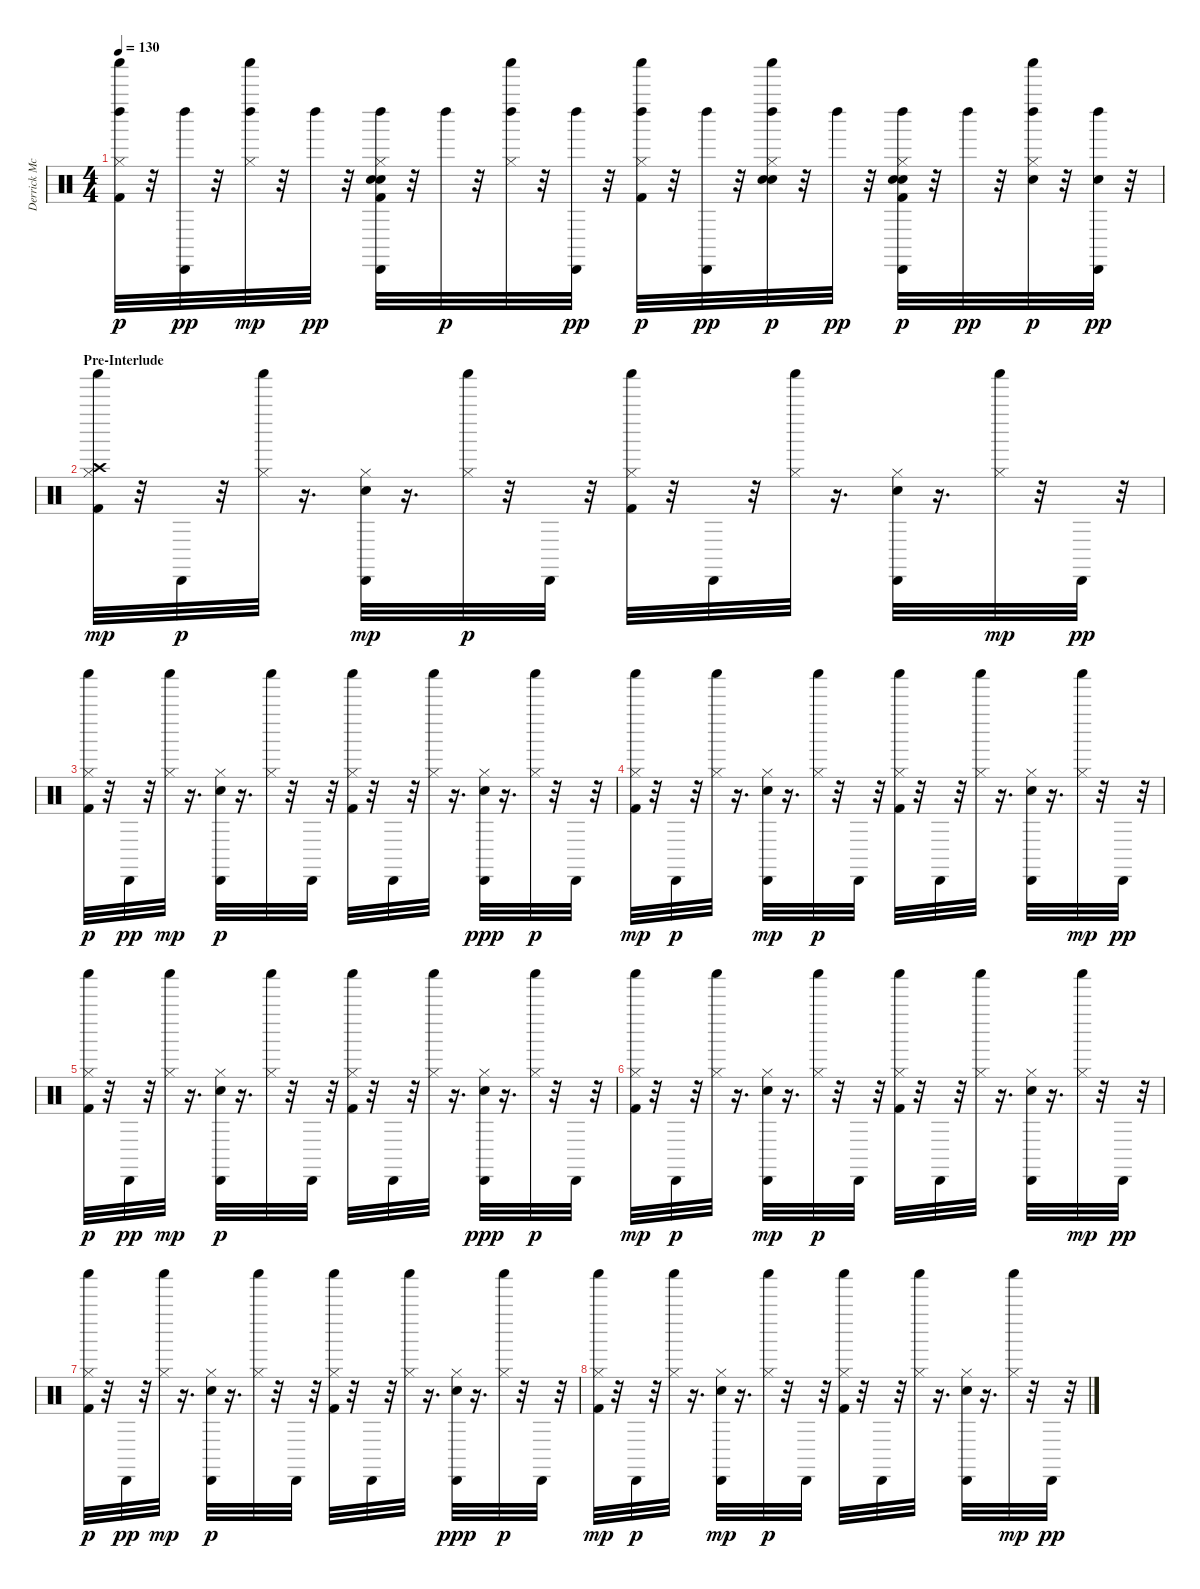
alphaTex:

\track ("Derrick McKenzie\\Sola Akingbola - Drums" "Derrick Mc") {instrument percussion}
\staff {score}
\articulation defaults
\ts (4 4)
\tempo 130
\clef neutral
\ks c
("Kick (hit) 2" "Hi-Hat (closed)" "Left Maraca (hit)" "Shaker (hit)").32{dy p} r.32 ("Cabasa (hit)" "Left Maraca (hit)").32{dy pp} r.32 ("Hi-Hat (closed)" "Left Maraca (hit)" "Shaker (hit)").32{dy mp} r.32 "Left Maraca (hit)".32{dy pp} r.32 ("Kick (hit) 2" "Hand Clap (hit)" "Electric Snare (hit)" "Hi-Hat (closed)" "Cabasa (hit)" "Left Maraca (hit)").32 r.32 "Left Maraca (hit)".32{dy p} r.32 ("Hi-Hat (closed)" "Left Maraca (hit)" "Shaker (hit)").32 r.32 ("Cabasa (hit)" "Left Maraca (hit)").32{dy pp} r.32 ("Kick (hit) 2" "Hi-Hat (closed)" "Left Maraca (hit)" "Shaker (hit)").32{dy p} r.32 ("Cabasa (hit)" "Left Maraca (hit)").32{dy pp} r.32 ("Hand Clap (hit)" "Electric Snare (hit)" "Hi-Hat (closed)" "Left Maraca (hit)" "Shaker (hit)").32{dy p} r.32 "Left Maraca (hit)".32{dy pp} r.32 ("Kick (hit) 2" "Hand Clap (hit)" "Electric Snare (hit)" "Hi-Hat (closed)" "Cabasa (hit)" "Left Maraca (hit)").32{dy p} r.32 "Left Maraca (hit)".32{dy pp} r.32 ("Electric Snare (hit)" "Hi-Hat (closed)" "Left Maraca (hit)" "Shaker (hit)").32{dy p} r.32 ("Electric Snare (hit)" "Cabasa (hit)" "Left Maraca (hit)").32{dy pp} r.32 |
\section ("" "Pre-Interlude")
("Kick (hit) 2" "Hi-Hat (closed)" "Crash high (hit)" "Shaker (hit)").32{dy mp} r.32 "Cabasa (hit)".32{dy p} r.32 ("Hi-Hat (closed)" "Shaker (hit)").32 r.16{d} ("Electric Snare (hit)" "Hi-Hat (closed)" "Cabasa (hit)").32{dy mp} r.16{d} ("Hi-Hat (closed)" "Shaker (hit)").32{dy p} r.32 "Cabasa (hit)".32 r.32 ("Kick (hit) 2" "Hi-Hat (closed)" "Shaker (hit)").32 r.32 "Cabasa (hit)".32 r.32 ("Hi-Hat (closed)" "Shaker (hit)").32 r.16{d} ("Electric Snare (hit)" "Hi-Hat (closed)" "Cabasa (hit)").32 r.16{d} ("Hi-Hat (closed)" "Shaker (hit)").32{dy mp} r.32 "Cabasa (hit)".32{dy pp} r.32 |
("Kick (hit) 2" "Hi-Hat (closed)" "Shaker (hit)").32{dy p} r.32 "Cabasa (hit)".32{dy pp} r.32 ("Hi-Hat (closed)" "Shaker (hit)").32{dy mp} r.16{d} ("Electric Snare (hit)" "Hi-Hat (closed)" "Cabasa (hit)").32{dy p} r.16{d} ("Hi-Hat (closed)" "Shaker (hit)").32 r.32 "Cabasa (hit)".32 r.32 ("Kick (hit) 2" "Hi-Hat (closed)" "Shaker (hit)").32 r.32 "Cabasa (hit)".32 r.32 ("Hi-Hat (closed)" "Shaker (hit)").32 r.16{d} ("Electric Snare (hit)" "Hi-Hat (closed)" "Cabasa (hit)").32{dy ppp} r.16{d} ("Hi-Hat (closed)" "Shaker (hit)").32{dy p} r.32 "Cabasa (hit)".32 r.32 |
("Kick (hit) 2" "Hi-Hat (closed)" "Shaker (hit)").32{dy mp} r.32 "Cabasa (hit)".32{dy p} r.32 ("Hi-Hat (closed)" "Shaker (hit)").32 r.16{d} ("Electric Snare (hit)" "Hi-Hat (closed)" "Cabasa (hit)").32{dy mp} r.16{d} ("Hi-Hat (closed)" "Shaker (hit)").32{dy p} r.32 "Cabasa (hit)".32 r.32 ("Kick (hit) 2" "Hi-Hat (closed)" "Shaker (hit)").32 r.32 "Cabasa (hit)".32 r.32 ("Hi-Hat (closed)" "Shaker (hit)").32 r.16{d} ("Electric Snare (hit)" "Hi-Hat (closed)" "Cabasa (hit)").32 r.16{d} ("Hi-Hat (closed)" "Shaker (hit)").32{dy mp} r.32 "Cabasa (hit)".32{dy pp} r.32 |
("Kick (hit) 2" "Hi-Hat (closed)" "Shaker (hit)").32{dy p} r.32 "Cabasa (hit)".32{dy pp} r.32 ("Hi-Hat (closed)" "Shaker (hit)").32{dy mp} r.16{d} ("Electric Snare (hit)" "Hi-Hat (closed)" "Cabasa (hit)").32{dy p} r.16{d} ("Hi-Hat (closed)" "Shaker (hit)").32 r.32 "Cabasa (hit)".32 r.32 ("Kick (hit) 2" "Hi-Hat (closed)" "Shaker (hit)").32 r.32 "Cabasa (hit)".32 r.32 ("Hi-Hat (closed)" "Shaker (hit)").32 r.16{d} ("Electric Snare (hit)" "Hi-Hat (closed)" "Cabasa (hit)").32{dy ppp} r.16{d} ("Hi-Hat (closed)" "Shaker (hit)").32{dy p} r.32 "Cabasa (hit)".32 r.32 |
("Kick (hit) 2" "Hi-Hat (closed)" "Shaker (hit)").32{dy mp} r.32 "Cabasa (hit)".32{dy p} r.32 ("Hi-Hat (closed)" "Shaker (hit)").32 r.16{d} ("Electric Snare (hit)" "Hi-Hat (closed)" "Cabasa (hit)").32{dy mp} r.16{d} ("Hi-Hat (closed)" "Shaker (hit)").32{dy p} r.32 "Cabasa (hit)".32 r.32 ("Kick (hit) 2" "Hi-Hat (closed)" "Shaker (hit)").32 r.32 "Cabasa (hit)".32 r.32 ("Hi-Hat (closed)" "Shaker (hit)").32 r.16{d} ("Electric Snare (hit)" "Hi-Hat (closed)" "Cabasa (hit)").32 r.16{d} ("Hi-Hat (closed)" "Shaker (hit)").32{dy mp} r.32 "Cabasa (hit)".32{dy pp} r.32 |
("Kick (hit) 2" "Hi-Hat (closed)" "Shaker (hit)").32{dy p} r.32 "Cabasa (hit)".32{dy pp} r.32 ("Hi-Hat (closed)" "Shaker (hit)").32{dy mp} r.16{d} ("Electric Snare (hit)" "Hi-Hat (closed)" "Cabasa (hit)").32{dy p} r.16{d} ("Hi-Hat (closed)" "Shaker (hit)").32 r.32 "Cabasa (hit)".32 r.32 ("Kick (hit) 2" "Hi-Hat (closed)" "Shaker (hit)").32 r.32 "Cabasa (hit)".32 r.32 ("Hi-Hat (closed)" "Shaker (hit)").32 r.16{d} ("Electric Snare (hit)" "Hi-Hat (closed)" "Cabasa (hit)").32{dy ppp} r.16{d} ("Hi-Hat (closed)" "Shaker (hit)").32{dy p} r.32 "Cabasa (hit)".32 r.32 |
("Kick (hit) 2" "Hi-Hat (closed)" "Shaker (hit)").32{dy mp} r.32 "Cabasa (hit)".32{dy p} r.32 ("Hi-Hat (closed)" "Shaker (hit)").32 r.16{d} ("Electric Snare (hit)" "Hi-Hat (closed)" "Cabasa (hit)").32{dy mp} r.16{d} ("Hi-Hat (closed)" "Shaker (hit)").32{dy p} r.32 "Cabasa (hit)".32 r.32 ("Kick (hit) 2" "Hi-Hat (closed)" "Shaker (hit)").32 r.32 "Cabasa (hit)".32 r.32 ("Hi-Hat (closed)" "Shaker (hit)").32 r.16{d} ("Electric Snare (hit)" "Hi-Hat (closed)" "Cabasa (hit)").32 r.16{d} ("Hi-Hat (closed)" "Shaker (hit)").32{dy mp} r.32 "Cabasa (hit)".32{dy pp} r.32
